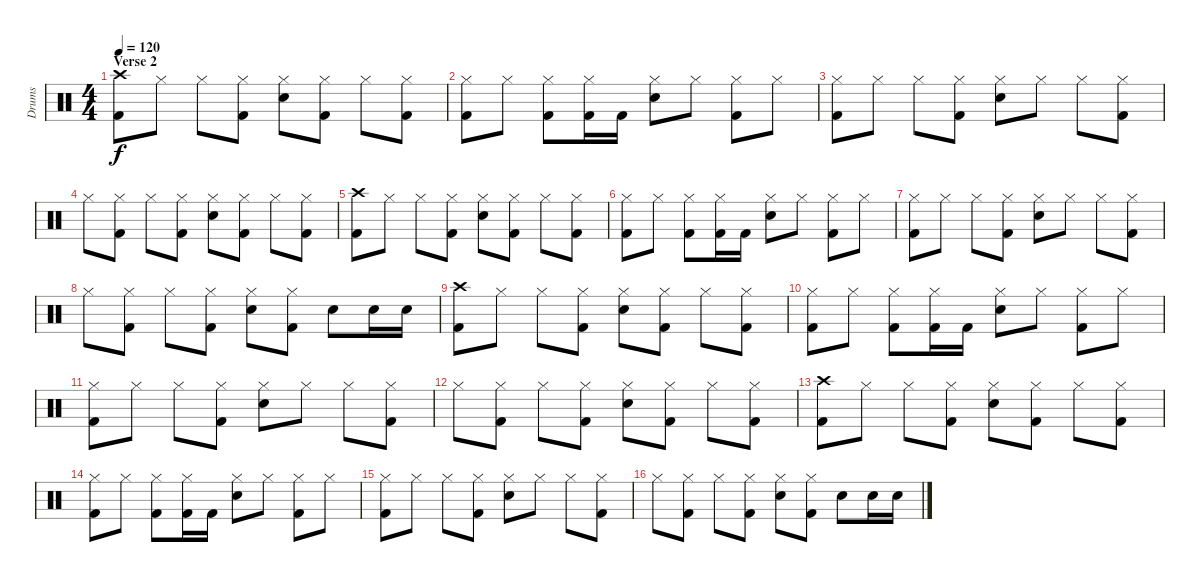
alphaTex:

\track ("Drums" "Drums") {instrument percussion}
\staff {score}
\articulation defaults
\ts (4 4)
\section ("" "Verse 2")
\tempo 120
\clef neutral
\ks c
("Crash high (hit)" "Kick (hit) 2").8{dy f} "Hi-Hat (closed)".8 "Hi-Hat (closed)".8 ("Hi-Hat (closed)" "Kick (hit) 2").8 ("Hi-Hat (closed)" "Snare (hit) 2").8 ("Hi-Hat (closed)" "Kick (hit) 2").8 "Hi-Hat (closed)".8 ("Hi-Hat (closed)" "Kick (hit) 2").8 |
("Hi-Hat (closed)" "Kick (hit) 2").8 "Hi-Hat (closed)".8 ("Hi-Hat (closed)" "Kick (hit) 2").8 ("Hi-Hat (closed)" "Kick (hit) 2").16 "Kick (hit) 2".16 ("Hi-Hat (closed)" "Snare (hit) 2").8 "Hi-Hat (closed)".8 ("Hi-Hat (closed)" "Kick (hit) 2").8 "Hi-Hat (closed)".8 |
("Hi-Hat (closed)" "Kick (hit) 2").8 "Hi-Hat (closed)".8 "Hi-Hat (closed)".8 ("Hi-Hat (closed)" "Kick (hit) 2").8 ("Hi-Hat (closed)" "Snare (hit) 2").8 "Hi-Hat (closed)".8 "Hi-Hat (closed)".8 ("Hi-Hat (closed)" "Kick (hit) 2").8 |
"Hi-Hat (closed)".8 ("Hi-Hat (closed)" "Kick (hit) 2").8 "Hi-Hat (closed)".8 ("Hi-Hat (closed)" "Kick (hit) 2").8 ("Hi-Hat (closed)" "Snare (hit) 2").8 ("Hi-Hat (closed)" "Kick (hit) 2").8 "Hi-Hat (closed)".8 ("Hi-Hat (closed)" "Kick (hit) 2").8 |
("Crash high (hit)" "Kick (hit) 2").8 "Hi-Hat (closed)".8 "Hi-Hat (closed)".8 ("Hi-Hat (closed)" "Kick (hit) 2").8 ("Hi-Hat (closed)" "Snare (hit) 2").8 ("Hi-Hat (closed)" "Kick (hit) 2").8 "Hi-Hat (closed)".8 ("Hi-Hat (closed)" "Kick (hit) 2").8 |
("Hi-Hat (closed)" "Kick (hit) 2").8 "Hi-Hat (closed)".8 ("Hi-Hat (closed)" "Kick (hit) 2").8 ("Hi-Hat (closed)" "Kick (hit) 2").16 "Kick (hit) 2".16 ("Hi-Hat (closed)" "Snare (hit) 2").8 "Hi-Hat (closed)".8 ("Hi-Hat (closed)" "Kick (hit) 2").8 "Hi-Hat (closed)".8 |
("Hi-Hat (closed)" "Kick (hit) 2").8 "Hi-Hat (closed)".8 "Hi-Hat (closed)".8 ("Hi-Hat (closed)" "Kick (hit) 2").8 ("Hi-Hat (closed)" "Snare (hit) 2").8 "Hi-Hat (closed)".8 "Hi-Hat (closed)".8 ("Hi-Hat (closed)" "Kick (hit) 2").8 |
"Hi-Hat (closed)".8 ("Hi-Hat (closed)" "Kick (hit) 2").8 "Hi-Hat (closed)".8 ("Hi-Hat (closed)" "Kick (hit) 2").8 ("Hi-Hat (closed)" "Snare (hit) 2").8 ("Hi-Hat (closed)" "Kick (hit) 2").8 "Snare (hit) 2".8 "Snare (hit) 2".16 "Snare (hit) 2".16 |
("Crash high (hit)" "Kick (hit) 2").8 "Hi-Hat (closed)".8 "Hi-Hat (closed)".8 ("Hi-Hat (closed)" "Kick (hit) 2").8 ("Hi-Hat (closed)" "Snare (hit) 2").8 ("Hi-Hat (closed)" "Kick (hit) 2").8 "Hi-Hat (closed)".8 ("Hi-Hat (closed)" "Kick (hit) 2").8 |
("Hi-Hat (closed)" "Kick (hit) 2").8 "Hi-Hat (closed)".8 ("Hi-Hat (closed)" "Kick (hit) 2").8 ("Hi-Hat (closed)" "Kick (hit) 2").16 "Kick (hit) 2".16 ("Hi-Hat (closed)" "Snare (hit) 2").8 "Hi-Hat (closed)".8 ("Hi-Hat (closed)" "Kick (hit) 2").8 "Hi-Hat (closed)".8 |
("Hi-Hat (closed)" "Kick (hit) 2").8 "Hi-Hat (closed)".8 "Hi-Hat (closed)".8 ("Hi-Hat (closed)" "Kick (hit) 2").8 ("Hi-Hat (closed)" "Snare (hit) 2").8 "Hi-Hat (closed)".8 "Hi-Hat (closed)".8 ("Hi-Hat (closed)" "Kick (hit) 2").8 |
"Hi-Hat (closed)".8 ("Hi-Hat (closed)" "Kick (hit) 2").8 "Hi-Hat (closed)".8 ("Hi-Hat (closed)" "Kick (hit) 2").8 ("Hi-Hat (closed)" "Snare (hit) 2").8 ("Hi-Hat (closed)" "Kick (hit) 2").8 "Hi-Hat (closed)".8 ("Hi-Hat (closed)" "Kick (hit) 2").8 |
("Crash high (hit)" "Kick (hit) 2").8 "Hi-Hat (closed)".8 "Hi-Hat (closed)".8 ("Hi-Hat (closed)" "Kick (hit) 2").8 ("Hi-Hat (closed)" "Snare (hit) 2").8 ("Hi-Hat (closed)" "Kick (hit) 2").8 "Hi-Hat (closed)".8 ("Hi-Hat (closed)" "Kick (hit) 2").8 |
("Hi-Hat (closed)" "Kick (hit) 2").8 "Hi-Hat (closed)".8 ("Hi-Hat (closed)" "Kick (hit) 2").8 ("Hi-Hat (closed)" "Kick (hit) 2").16 "Kick (hit) 2".16 ("Hi-Hat (closed)" "Snare (hit) 2").8 "Hi-Hat (closed)".8 ("Hi-Hat (closed)" "Kick (hit) 2").8 "Hi-Hat (closed)".8 |
("Hi-Hat (closed)" "Kick (hit) 2").8 "Hi-Hat (closed)".8 "Hi-Hat (closed)".8 ("Hi-Hat (closed)" "Kick (hit) 2").8 ("Hi-Hat (closed)" "Snare (hit) 2").8 "Hi-Hat (closed)".8 "Hi-Hat (closed)".8 ("Hi-Hat (closed)" "Kick (hit) 2").8 |
"Hi-Hat (closed)".8 ("Hi-Hat (closed)" "Kick (hit) 2").8 "Hi-Hat (closed)".8 ("Hi-Hat (closed)" "Kick (hit) 2").8 ("Hi-Hat (closed)" "Snare (hit) 2").8 ("Hi-Hat (closed)" "Kick (hit) 2").8 "Snare (hit) 2".8 "Snare (hit) 2".16 "Snare (hit) 2".16
